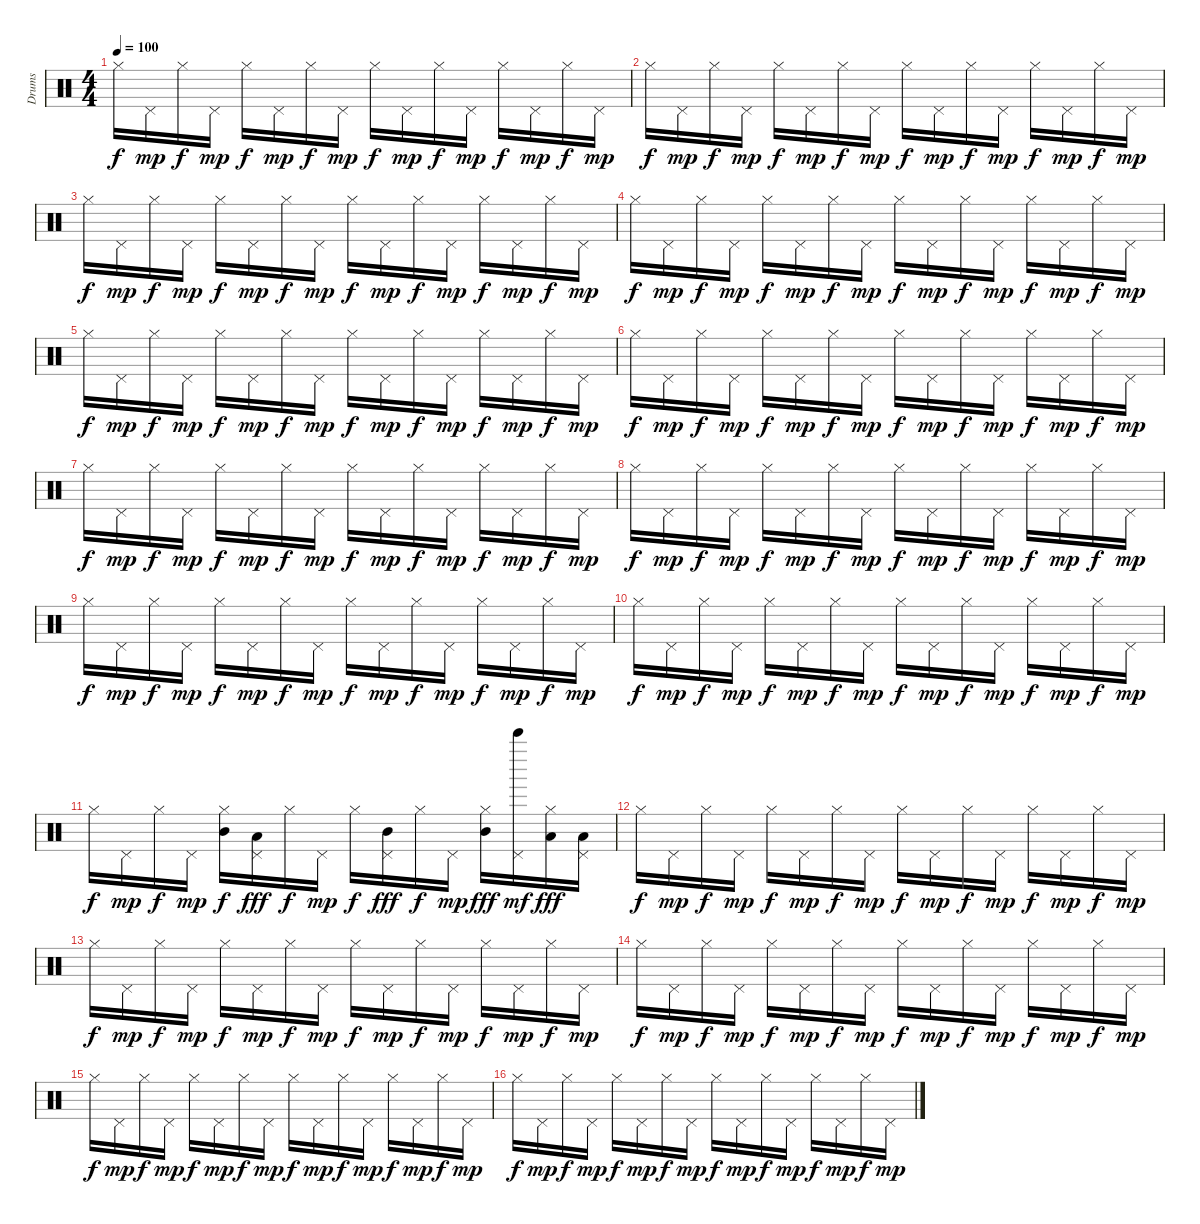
\track ("Drums" "Drums") {instrument percussion}
\staff {score}
\articulation defaults
\ts (4 4)
\tempo 100
\clef neutral
\ks c "Hi-Hat (closed)".16{dy f} "Pedal Hi-Hat (hit)".16{dy mp} "Hi-Hat (closed)".16{dy f} "Pedal Hi-Hat (hit)".16{dy mp} "Hi-Hat (closed)".16{dy f} "Pedal Hi-Hat (hit)".16{dy mp} "Hi-Hat (closed)".16{dy f} "Pedal Hi-Hat (hit)".16{dy mp} "Hi-Hat (closed)".16{dy f} "Pedal Hi-Hat (hit)".16{dy mp} "Hi-Hat (closed)".16{dy f} "Pedal Hi-Hat (hit)".16{dy mp} "Hi-Hat (closed)".16{dy f} "Pedal Hi-Hat (hit)".16{dy mp} "Hi-Hat (closed)".16{dy f} "Pedal Hi-Hat (hit)".16{dy mp}
|
"Hi-Hat (closed)".16{dy f} "Pedal Hi-Hat (hit)".16{dy mp} "Hi-Hat (closed)".16{dy f} "Pedal Hi-Hat (hit)".16{dy mp} "Hi-Hat (closed)".16{dy f} "Pedal Hi-Hat (hit)".16{dy mp} "Hi-Hat (closed)".16{dy f} "Pedal Hi-Hat (hit)".16{dy mp} "Hi-Hat (closed)".16{dy f} "Pedal Hi-Hat (hit)".16{dy mp} "Hi-Hat (closed)".16{dy f} "Pedal Hi-Hat (hit)".16{dy mp} "Hi-Hat (closed)".16{dy f} "Pedal Hi-Hat (hit)".16{dy mp} "Hi-Hat (closed)".16{dy f} "Pedal Hi-Hat (hit)".16{dy mp} |
"Hi-Hat (closed)".16{dy f} "Pedal Hi-Hat (hit)".16{dy mp} "Hi-Hat (closed)".16{dy f} "Pedal Hi-Hat (hit)".16{dy mp} "Hi-Hat (closed)".16{dy f} "Pedal Hi-Hat (hit)".16{dy mp} "Hi-Hat (closed)".16{dy f} "Pedal Hi-Hat (hit)".16{dy mp} "Hi-Hat (closed)".16{dy f} "Pedal Hi-Hat (hit)".16{dy mp} "Hi-Hat (closed)".16{dy f} "Pedal Hi-Hat (hit)".16{dy mp} "Hi-Hat (closed)".16{dy f} "Pedal Hi-Hat (hit)".16{dy mp} "Hi-Hat (closed)".16{dy f} "Pedal Hi-Hat (hit)".16{dy mp} |
"Hi-Hat (closed)".16{dy f} "Pedal Hi-Hat (hit)".16{dy mp} "Hi-Hat (closed)".16{dy f} "Pedal Hi-Hat (hit)".16{dy mp} "Hi-Hat (closed)".16{dy f} "Pedal Hi-Hat (hit)".16{dy mp} "Hi-Hat (closed)".16{dy f} "Pedal Hi-Hat (hit)".16{dy mp} "Hi-Hat (closed)".16{dy f} "Pedal Hi-Hat (hit)".16{dy mp} "Hi-Hat (closed)".16{dy f} "Pedal Hi-Hat (hit)".16{dy mp} "Hi-Hat (closed)".16{dy f} "Pedal Hi-Hat (hit)".16{dy mp} "Hi-Hat (closed)".16{dy f} "Pedal Hi-Hat (hit)".16{dy mp} |
"Hi-Hat (closed)".16{dy f} "Pedal Hi-Hat (hit)".16{dy mp} "Hi-Hat (closed)".16{dy f} "Pedal Hi-Hat (hit)".16{dy mp} "Hi-Hat (closed)".16{dy f} "Pedal Hi-Hat (hit)".16{dy mp} "Hi-Hat (closed)".16{dy f} "Pedal Hi-Hat (hit)".16{dy mp} "Hi-Hat (closed)".16{dy f} "Pedal Hi-Hat (hit)".16{dy mp} "Hi-Hat (closed)".16{dy f} "Pedal Hi-Hat (hit)".16{dy mp} "Hi-Hat (closed)".16{dy f} "Pedal Hi-Hat (hit)".16{dy mp} "Hi-Hat (closed)".16{dy f} "Pedal Hi-Hat (hit)".16{dy mp} |
"Hi-Hat (closed)".16{dy f} "Pedal Hi-Hat (hit)".16{dy mp} "Hi-Hat (closed)".16{dy f} "Pedal Hi-Hat (hit)".16{dy mp} "Hi-Hat (closed)".16{dy f} "Pedal Hi-Hat (hit)".16{dy mp} "Hi-Hat (closed)".16{dy f} "Pedal Hi-Hat (hit)".16{dy mp} "Hi-Hat (closed)".16{dy f} "Pedal Hi-Hat (hit)".16{dy mp} "Hi-Hat (closed)".16{dy f} "Pedal Hi-Hat (hit)".16{dy mp} "Hi-Hat (closed)".16{dy f} "Pedal Hi-Hat (hit)".16{dy mp} "Hi-Hat (closed)".16{dy f} "Pedal Hi-Hat (hit)".16{dy mp} |
"Hi-Hat (closed)".16{dy f} "Pedal Hi-Hat (hit)".16{dy mp} "Hi-Hat (closed)".16{dy f} "Pedal Hi-Hat (hit)".16{dy mp} "Hi-Hat (closed)".16{dy f} "Pedal Hi-Hat (hit)".16{dy mp} "Hi-Hat (closed)".16{dy f} "Pedal Hi-Hat (hit)".16{dy mp} "Hi-Hat (closed)".16{dy f} "Pedal Hi-Hat (hit)".16{dy mp} "Hi-Hat (closed)".16{dy f} "Pedal Hi-Hat (hit)".16{dy mp} "Hi-Hat (closed)".16{dy f} "Pedal Hi-Hat (hit)".16{dy mp} "Hi-Hat (closed)".16{dy f} "Pedal Hi-Hat (hit)".16{dy mp} |
"Hi-Hat (closed)".16{dy f} "Pedal Hi-Hat (hit)".16{dy mp} "Hi-Hat (closed)".16{dy f} "Pedal Hi-Hat (hit)".16{dy mp} "Hi-Hat (closed)".16{dy f} "Pedal Hi-Hat (hit)".16{dy mp} "Hi-Hat (closed)".16{dy f} "Pedal Hi-Hat (hit)".16{dy mp} "Hi-Hat (closed)".16{dy f} "Pedal Hi-Hat (hit)".16{dy mp} "Hi-Hat (closed)".16{dy f} "Pedal Hi-Hat (hit)".16{dy mp} "Hi-Hat (closed)".16{dy f} "Pedal Hi-Hat (hit)".16{dy mp} "Hi-Hat (closed)".16{dy f} "Pedal Hi-Hat (hit)".16{dy mp} |
"Hi-Hat (closed)".16{dy f} "Pedal Hi-Hat (hit)".16{dy mp} "Hi-Hat (closed)".16{dy f} "Pedal Hi-Hat (hit)".16{dy mp} "Hi-Hat (closed)".16{dy f} "Pedal Hi-Hat (hit)".16{dy mp} "Hi-Hat (closed)".16{dy f} "Pedal Hi-Hat (hit)".16{dy mp} "Hi-Hat (closed)".16{dy f} "Pedal Hi-Hat (hit)".16{dy mp} "Hi-Hat (closed)".16{dy f} "Pedal Hi-Hat (hit)".16{dy mp} "Hi-Hat (closed)".16{dy f} "Pedal Hi-Hat (hit)".16{dy mp} "Hi-Hat (closed)".16{dy f} "Pedal Hi-Hat (hit)".16{dy mp} |
"Hi-Hat (closed)".16{dy f} "Pedal Hi-Hat (hit)".16{dy mp} "Hi-Hat (closed)".16{dy f} "Pedal Hi-Hat (hit)".16{dy mp} "Hi-Hat (closed)".16{dy f} "Pedal Hi-Hat (hit)".16{dy mp} "Hi-Hat (closed)".16{dy f} "Pedal Hi-Hat (hit)".16{dy mp} "Hi-Hat (closed)".16{dy f} "Pedal Hi-Hat (hit)".16{dy mp} "Hi-Hat (closed)".16{dy f} "Pedal Hi-Hat (hit)".16{dy mp} "Hi-Hat (closed)".16{dy f} "Pedal Hi-Hat (hit)".16{dy mp} "Hi-Hat (closed)".16{dy f} "Pedal Hi-Hat (hit)".16{dy mp} |
"Hi-Hat (closed)".16{dy f} "Pedal Hi-Hat (hit)".16{dy mp} "Hi-Hat (closed)".16{dy f} "Pedal Hi-Hat (hit)".16{dy mp} ("Hi-Hat (closed)" "Mid Tom (hit)").16{dy f} ("Pedal Hi-Hat (hit)" "Low Floor Tom (hit)").16{dy fff} "Hi-Hat (closed)".16{dy f} "Pedal Hi-Hat (hit)".16{dy mp} "Hi-Hat (closed)".16{dy f} ("Pedal Hi-Hat (hit)" "Mid Tom (hit)").16{dy fff} "Hi-Hat (closed)".16{dy f} "Pedal Hi-Hat (hit)".16{dy mp} ("Hi-Hat (closed)" "Mid Tom (hit)").16{dy fff} ("Pedal Hi-Hat (hit)" "Bell Tree (hit)").16{dy mf} ("Hi-Hat (closed)" "Low Tom (hit)").16{dy fff} ("Pedal Hi-Hat (hit)" "Low Floor Tom (hit)").16 |
"Hi-Hat (closed)".16{dy f} "Pedal Hi-Hat (hit)".16{dy mp} "Hi-Hat (closed)".16{dy f} "Pedal Hi-Hat (hit)".16{dy mp} "Hi-Hat (closed)".16{dy f} "Pedal Hi-Hat (hit)".16{dy mp} "Hi-Hat (closed)".16{dy f} "Pedal Hi-Hat (hit)".16{dy mp} "Hi-Hat (closed)".16{dy f} "Pedal Hi-Hat (hit)".16{dy mp} "Hi-Hat (closed)".16{dy f} "Pedal Hi-Hat (hit)".16{dy mp} "Hi-Hat (closed)".16{dy f} "Pedal Hi-Hat (hit)".16{dy mp} "Hi-Hat (closed)".16{dy f} "Pedal Hi-Hat (hit)".16{dy mp} |
"Hi-Hat (closed)".16{dy f} "Pedal Hi-Hat (hit)".16{dy mp} "Hi-Hat (closed)".16{dy f} "Pedal Hi-Hat (hit)".16{dy mp} "Hi-Hat (closed)".16{dy f} "Pedal Hi-Hat (hit)".16{dy mp} "Hi-Hat (closed)".16{dy f} "Pedal Hi-Hat (hit)".16{dy mp} "Hi-Hat (closed)".16{dy f} "Pedal Hi-Hat (hit)".16{dy mp} "Hi-Hat (closed)".16{dy f} "Pedal Hi-Hat (hit)".16{dy mp} "Hi-Hat (closed)".16{dy f} "Pedal Hi-Hat (hit)".16{dy mp} "Hi-Hat (closed)".16{dy f} "Pedal Hi-Hat (hit)".16{dy mp} |
"Hi-Hat (closed)".16{dy f} "Pedal Hi-Hat (hit)".16{dy mp} "Hi-Hat (closed)".16{dy f} "Pedal Hi-Hat (hit)".16{dy mp} "Hi-Hat (closed)".16{dy f} "Pedal Hi-Hat (hit)".16{dy mp} "Hi-Hat (closed)".16{dy f} "Pedal Hi-Hat (hit)".16{dy mp} "Hi-Hat (closed)".16{dy f} "Pedal Hi-Hat (hit)".16{dy mp} "Hi-Hat (closed)".16{dy f} "Pedal Hi-Hat (hit)".16{dy mp} "Hi-Hat (closed)".16{dy f} "Pedal Hi-Hat (hit)".16{dy mp} "Hi-Hat (closed)".16{dy f} "Pedal Hi-Hat (hit)".16{dy mp} |
"Hi-Hat (closed)".16{dy f} "Pedal Hi-Hat (hit)".16{dy mp} "Hi-Hat (closed)".16{dy f} "Pedal Hi-Hat (hit)".16{dy mp} "Hi-Hat (closed)".16{dy f} "Pedal Hi-Hat (hit)".16{dy mp} "Hi-Hat (closed)".16{dy f} "Pedal Hi-Hat (hit)".16{dy mp} "Hi-Hat (closed)".16{dy f} "Pedal Hi-Hat (hit)".16{dy mp} "Hi-Hat (closed)".16{dy f} "Pedal Hi-Hat (hit)".16{dy mp} "Hi-Hat (closed)".16{dy f} "Pedal Hi-Hat (hit)".16{dy mp} "Hi-Hat (closed)".16{dy f} "Pedal Hi-Hat (hit)".16{dy mp} |
"Hi-Hat (closed)".16{dy f} "Pedal Hi-Hat (hit)".16{dy mp} "Hi-Hat (closed)".16{dy f} "Pedal Hi-Hat (hit)".16{dy mp} "Hi-Hat (closed)".16{dy f} "Pedal Hi-Hat (hit)".16{dy mp} "Hi-Hat (closed)".16{dy f} "Pedal Hi-Hat (hit)".16{dy mp} "Hi-Hat (closed)".16{dy f} "Pedal Hi-Hat (hit)".16{dy mp} "Hi-Hat (closed)".16{dy f} "Pedal Hi-Hat (hit)".16{dy mp} "Hi-Hat (closed)".16{dy f} "Pedal Hi-Hat (hit)".16{dy mp} "Hi-Hat (closed)".16{dy f} "Pedal Hi-Hat (hit)".16{dy mp}
